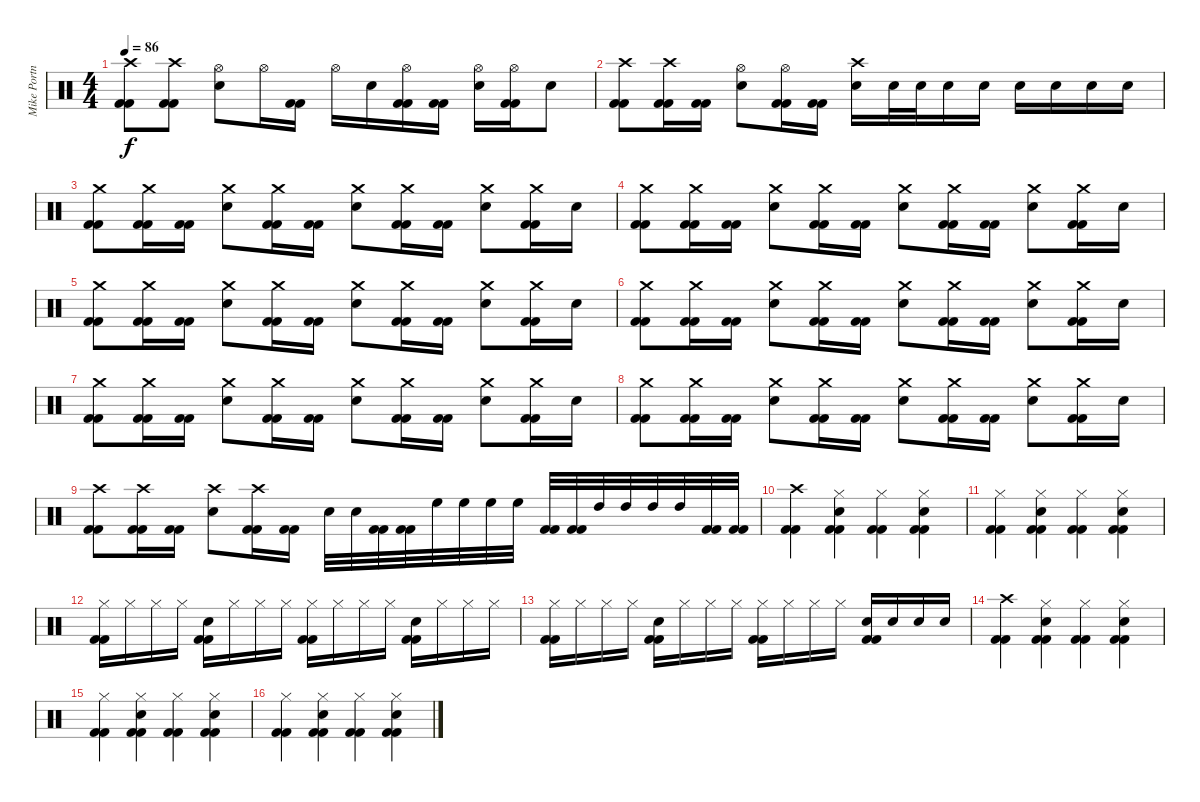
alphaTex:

\track ("Mike Portnoy - Drum" "Mike Portn") {instrument percussion}
\staff {score}
\articulation defaults
\ts (4 4)
\tempo 86
\clef neutral
\ks c
("Crash high (hit)" "Kick (hit) 2" "Kick (hit) 2").8{dy f} ("Crash high (hit)" "Kick (hit) 2" "Kick (hit) 2").8 ("Hi-Hat (open)" "Snare (hit) 2").8 "Hi-Hat (open)".16 ("Kick (hit) 2" "Kick (hit) 2").16 "Hi-Hat (open)".16 "Snare (hit) 2".16 ("Hi-Hat (open)" "Kick (hit) 2" "Kick (hit) 2").16 ("Kick (hit) 2" "Kick (hit) 2").16 ("Hi-Hat (open)" "Snare (hit) 2").16 ("Hi-Hat (open)" "Kick (hit) 2" "Kick (hit) 2").16 "Snare (hit) 2".8 |
("Crash high (hit)" "Kick (hit) 2" "Kick (hit) 2").8 ("Crash high (hit)" "Kick (hit) 2" "Kick (hit) 2").16 ("Kick (hit) 2" "Kick (hit) 2").16 ("Hi-Hat (open)" "Snare (hit) 2").8 ("Hi-Hat (open)" "Kick (hit) 2" "Kick (hit) 2").16 ("Kick (hit) 2" "Kick (hit) 2").16 ("Crash high (hit)" "Snare (hit) 2").16 "Snare (hit) 2".32 "Snare (hit) 2".32 "Snare (hit) 2".16 "Snare (hit) 2".16 "Snare (hit) 2".16 "Snare (hit) 2".16 "Snare (hit) 2".16 "Snare (hit) 2".16 |
("Crash medium (hit)" "Kick (hit) 2" "Kick (hit) 2").8 ("Crash medium (hit)" "Kick (hit) 2" "Kick (hit) 2").16 ("Kick (hit) 2" "Kick (hit) 2").16 ("Crash medium (hit)" "Snare (hit) 2").8 ("Crash medium (hit)" "Kick (hit) 2" "Kick (hit) 2").16 ("Kick (hit) 2" "Kick (hit) 2").16 ("Crash medium (hit)" "Snare (hit) 2").8 ("Crash medium (hit)" "Kick (hit) 2" "Kick (hit) 2").16 ("Kick (hit) 2" "Kick (hit) 2").16 ("Crash medium (hit)" "Snare (hit) 2").8 ("Crash medium (hit)" "Kick (hit) 2" "Kick (hit) 2").16 "Snare (hit) 2".16 |
("Crash medium (hit)" "Kick (hit) 2" "Kick (hit) 2").8 ("Crash medium (hit)" "Kick (hit) 2" "Kick (hit) 2").16 ("Kick (hit) 2" "Kick (hit) 2").16 ("Crash medium (hit)" "Snare (hit) 2").8 ("Crash medium (hit)" "Kick (hit) 2" "Kick (hit) 2").16 ("Kick (hit) 2" "Kick (hit) 2").16 ("Crash medium (hit)" "Snare (hit) 2").8 ("Crash medium (hit)" "Kick (hit) 2" "Kick (hit) 2").16 ("Kick (hit) 2" "Kick (hit) 2").16 ("Crash medium (hit)" "Snare (hit) 2").8 ("Crash medium (hit)" "Kick (hit) 2" "Kick (hit) 2").16 "Snare (hit) 2".16 |
("Crash medium (hit)" "Kick (hit) 2" "Kick (hit) 2").8 ("Crash medium (hit)" "Kick (hit) 2" "Kick (hit) 2").16 ("Kick (hit) 2" "Kick (hit) 2").16 ("Crash medium (hit)" "Snare (hit) 2").8 ("Crash medium (hit)" "Kick (hit) 2" "Kick (hit) 2").16 ("Kick (hit) 2" "Kick (hit) 2").16 ("Crash medium (hit)" "Snare (hit) 2").8 ("Crash medium (hit)" "Kick (hit) 2" "Kick (hit) 2").16 ("Kick (hit) 2" "Kick (hit) 2").16 ("Crash medium (hit)" "Snare (hit) 2").8 ("Crash medium (hit)" "Kick (hit) 2" "Kick (hit) 2").16 "Snare (hit) 2".16 |
("Crash medium (hit)" "Kick (hit) 2" "Kick (hit) 2").8 ("Crash medium (hit)" "Kick (hit) 2" "Kick (hit) 2").16 ("Kick (hit) 2" "Kick (hit) 2").16 ("Crash medium (hit)" "Snare (hit) 2").8 ("Crash medium (hit)" "Kick (hit) 2" "Kick (hit) 2").16 ("Kick (hit) 2" "Kick (hit) 2").16 ("Crash medium (hit)" "Snare (hit) 2").8 ("Crash medium (hit)" "Kick (hit) 2" "Kick (hit) 2").16 ("Kick (hit) 2" "Kick (hit) 2").16 ("Crash medium (hit)" "Snare (hit) 2").8 ("Crash medium (hit)" "Kick (hit) 2" "Kick (hit) 2").16 "Snare (hit) 2".16 |
("Crash medium (hit)" "Kick (hit) 2" "Kick (hit) 2").8 ("Crash medium (hit)" "Kick (hit) 2" "Kick (hit) 2").16 ("Kick (hit) 2" "Kick (hit) 2").16 ("Crash medium (hit)" "Snare (hit) 2").8 ("Crash medium (hit)" "Kick (hit) 2" "Kick (hit) 2").16 ("Kick (hit) 2" "Kick (hit) 2").16 ("Crash medium (hit)" "Snare (hit) 2").8 ("Crash medium (hit)" "Kick (hit) 2" "Kick (hit) 2").16 ("Kick (hit) 2" "Kick (hit) 2").16 ("Crash medium (hit)" "Snare (hit) 2").8 ("Crash medium (hit)" "Kick (hit) 2" "Kick (hit) 2").16 "Snare (hit) 2".16 |
("Crash medium (hit)" "Kick (hit) 2" "Kick (hit) 2").8 ("Crash medium (hit)" "Kick (hit) 2" "Kick (hit) 2").16 ("Kick (hit) 2" "Kick (hit) 2").16 ("Crash medium (hit)" "Snare (hit) 2").8 ("Crash medium (hit)" "Kick (hit) 2" "Kick (hit) 2").16 ("Kick (hit) 2" "Kick (hit) 2").16 ("Crash medium (hit)" "Snare (hit) 2").8 ("Crash medium (hit)" "Kick (hit) 2" "Kick (hit) 2").16 ("Kick (hit) 2" "Kick (hit) 2").16 ("Crash medium (hit)" "Snare (hit) 2").8 ("Crash medium (hit)" "Kick (hit) 2" "Kick (hit) 2").16 "Snare (hit) 2".16 |
("Crash high (hit)" "Kick (hit) 2" "Kick (hit) 2").8 ("Crash high (hit)" "Kick (hit) 2" "Kick (hit) 2").16 ("Kick (hit) 2" "Kick (hit) 2").16 ("Crash high (hit)" "Snare (hit) 2").8 ("Crash high (hit)" "Kick (hit) 2" "Kick (hit) 2").16 ("Kick (hit) 2" "Kick (hit) 2").16 "Snare (hit) 2".32 "Snare (hit) 2".32 ("Kick (hit) 2" "Kick (hit) 2").32 ("Kick (hit) 2" "Kick (hit) 2").32 "High Floor Tom (hit)".32 "High Floor Tom (hit)".32 "High Floor Tom (hit)".32 "High Floor Tom (hit)".32 ("Kick (hit) 2" "Kick (hit) 2").32 ("Kick (hit) 2" "Kick (hit) 2").32 "High Tom (hit)".32 "High Tom (hit)".32 "High Tom (hit)".32 "High Tom (hit)".32 ("Kick (hit) 2" "Kick (hit) 2").32 ("Kick (hit) 2" "Kick (hit) 2").32 |
("Crash high (hit)" "Kick (hit) 2" "Kick (hit) 2").4 ("Hi-Hat (closed)" "Snare (hit) 2" "Kick (hit) 2" "Kick (hit) 2").4 ("Hi-Hat (closed)" "Kick (hit) 2" "Kick (hit) 2").4 ("Hi-Hat (closed)" "Snare (hit) 2" "Kick (hit) 2" "Kick (hit) 2").4 |
("Hi-Hat (closed)" "Kick (hit) 2" "Kick (hit) 2").4 ("Hi-Hat (closed)" "Snare (hit) 2" "Kick (hit) 2" "Kick (hit) 2").4 ("Hi-Hat (closed)" "Kick (hit) 2" "Kick (hit) 2").4 ("Hi-Hat (closed)" "Snare (hit) 2" "Kick (hit) 2" "Kick (hit) 2").4 |
("Hi-Hat (closed)" "Kick (hit) 2" "Kick (hit) 2").16 "Hi-Hat (closed)".16 "Hi-Hat (closed)".16 "Hi-Hat (closed)".16 ("Snare (hit) 2" "Kick (hit) 2" "Kick (hit) 2").16 "Hi-Hat (closed)".16 "Hi-Hat (closed)".16 "Hi-Hat (closed)".16 ("Hi-Hat (closed)" "Kick (hit) 2" "Kick (hit) 2").16 "Hi-Hat (closed)".16 "Hi-Hat (closed)".16 "Hi-Hat (closed)".16 ("Snare (hit) 2" "Kick (hit) 2" "Kick (hit) 2").16 "Hi-Hat (closed)".16 "Hi-Hat (closed)".16 "Hi-Hat (closed)".16 |
("Hi-Hat (closed)" "Kick (hit) 2" "Kick (hit) 2").16 "Hi-Hat (closed)".16 "Hi-Hat (closed)".16 "Hi-Hat (closed)".16 ("Snare (hit) 2" "Kick (hit) 2" "Kick (hit) 2").16 "Hi-Hat (closed)".16 "Hi-Hat (closed)".16 "Hi-Hat (closed)".16 ("Hi-Hat (closed)" "Kick (hit) 2" "Kick (hit) 2").16 "Hi-Hat (closed)".16 "Hi-Hat (closed)".16 "Hi-Hat (closed)".16 ("Snare (hit) 2" "Kick (hit) 2" "Kick (hit) 2").16 "Snare (hit) 2".16 "Snare (hit) 2".16 "Snare (hit) 2".16 |
("Crash high (hit)" "Kick (hit) 2" "Kick (hit) 2").4 ("Hi-Hat (closed)" "Snare (hit) 2" "Kick (hit) 2" "Kick (hit) 2").4 ("Hi-Hat (closed)" "Kick (hit) 2" "Kick (hit) 2").4 ("Hi-Hat (closed)" "Snare (hit) 2" "Kick (hit) 2" "Kick (hit) 2").4 |
("Hi-Hat (closed)" "Kick (hit) 2" "Kick (hit) 2").4 ("Hi-Hat (closed)" "Snare (hit) 2" "Kick (hit) 2" "Kick (hit) 2").4 ("Hi-Hat (closed)" "Kick (hit) 2" "Kick (hit) 2").4 ("Hi-Hat (closed)" "Snare (hit) 2" "Kick (hit) 2" "Kick (hit) 2").4 |
("Hi-Hat (closed)" "Kick (hit) 2" "Kick (hit) 2").4 ("Hi-Hat (closed)" "Snare (hit) 2" "Kick (hit) 2" "Kick (hit) 2").4 ("Hi-Hat (closed)" "Kick (hit) 2" "Kick (hit) 2").4 ("Hi-Hat (closed)" "Snare (hit) 2" "Kick (hit) 2" "Kick (hit) 2").4
